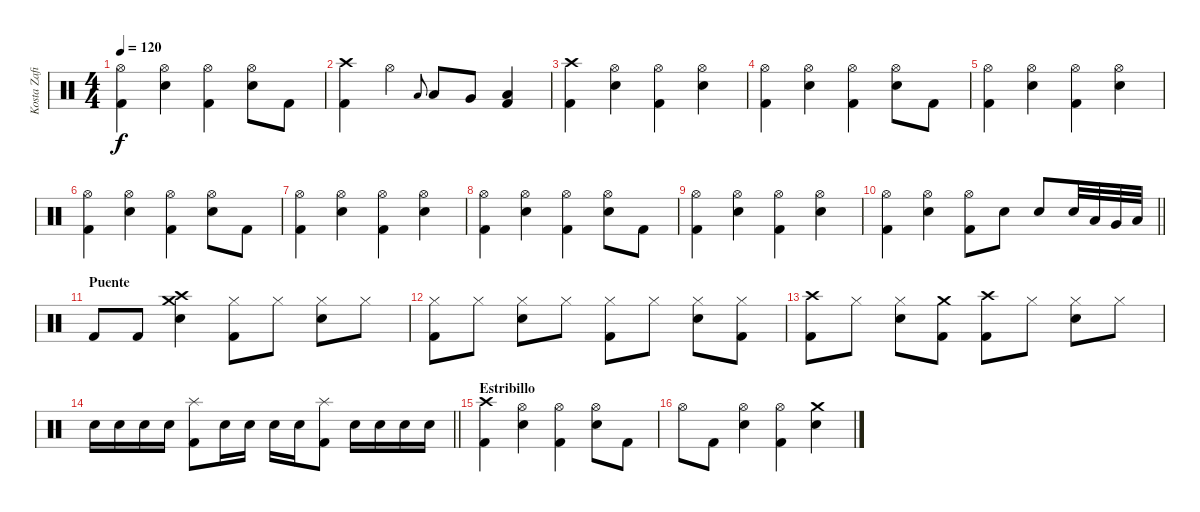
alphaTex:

\track ("Kosta Zafiriou" "Kosta Zafi") {instrument percussion}
\staff {score}
\articulation defaults
\ts (4 4)
\tempo 120
\clef neutral
\ks c
("Hi-Hat (open)" "Kick (hit) 2").4{dy f} ("Hi-Hat (open)" "Electric Snare (hit)").4 ("Hi-Hat (open)" "Kick (hit) 2").4 ("Hi-Hat (open)" "Electric Snare (hit)").8 "Kick (hit) 2".8 |
("Crash high (hit)" "Kick (hit) 2").4 "Hi-Hat (open)".4 "Low Tom (hit)".8{gr onbeat} "Low Tom (hit)".8 "Very Low Tom (hit)".8 ("Low Floor Tom (hit)" "Kick (hit) 2").4 |
("Crash high (hit)" "Kick (hit) 2").4 ("Hi-Hat (open)" "Electric Snare (hit)").4 ("Hi-Hat (open)" "Kick (hit) 2").4 ("Hi-Hat (open)" "Electric Snare (hit)").4 |
("Hi-Hat (open)" "Kick (hit) 2").4 ("Hi-Hat (open)" "Electric Snare (hit)").4 ("Hi-Hat (open)" "Kick (hit) 2").4 ("Hi-Hat (open)" "Electric Snare (hit)").8 "Kick (hit) 2".8 |
("Hi-Hat (open)" "Kick (hit) 2").4 ("Hi-Hat (open)" "Electric Snare (hit)").4 ("Hi-Hat (open)" "Kick (hit) 2").4 ("Hi-Hat (open)" "Electric Snare (hit)").4 |
("Hi-Hat (open)" "Kick (hit) 2").4 ("Hi-Hat (open)" "Electric Snare (hit)").4 ("Hi-Hat (open)" "Kick (hit) 2").4 ("Hi-Hat (open)" "Electric Snare (hit)").8 "Kick (hit) 2".8 |
("Hi-Hat (open)" "Kick (hit) 2").4 ("Hi-Hat (open)" "Electric Snare (hit)").4 ("Hi-Hat (open)" "Kick (hit) 2").4 ("Hi-Hat (open)" "Electric Snare (hit)").4 |
("Hi-Hat (open)" "Kick (hit) 2").4 ("Hi-Hat (open)" "Electric Snare (hit)").4 ("Hi-Hat (open)" "Kick (hit) 2").4 ("Hi-Hat (open)" "Electric Snare (hit)").8 "Kick (hit) 2".8 |
("Hi-Hat (open)" "Kick (hit) 2").4 ("Hi-Hat (open)" "Electric Snare (hit)").4 ("Hi-Hat (open)" "Kick (hit) 2").4 ("Hi-Hat (open)" "Electric Snare (hit)").4 |
\barLineRight lightlight
("Hi-Hat (open)" "Kick (hit) 2").4 ("Hi-Hat (open)" "Electric Snare (hit)").4 ("Hi-Hat (open)" "Kick (hit) 2").8 "Electric Snare (hit)".8 "Electric Snare (hit)".8 "Electric Snare (hit)".32 "Low Tom (hit)".32 "Very Low Tom (hit)".32 "Low Floor Tom (hit)".32 |
\section ("" "Puente")
"Kick (hit) 2".8 "Kick (hit) 2".8 ("Crash medium (hit)" "Crash high (hit)" "Electric Snare (hit)").4 ("Hi-Hat (closed)" "Kick (hit) 2").8 "Hi-Hat (closed)".8 ("Hi-Hat (closed)" "Electric Snare (hit)").8 "Hi-Hat (closed)".8 |
("Hi-Hat (closed)" "Kick (hit) 2").8 "Hi-Hat (closed)".8 ("Hi-Hat (closed)" "Electric Snare (hit)").8 "Hi-Hat (closed)".8 ("Hi-Hat (closed)" "Kick (hit) 2").8 "Hi-Hat (closed)".8 ("Hi-Hat (closed)" "Electric Snare (hit)").8 ("Hi-Hat (closed)" "Kick (hit) 2").8 |
("Crash high (hit)" "Kick (hit) 2").8 "Hi-Hat (closed)".8 ("Hi-Hat (closed)" "Electric Snare (hit)").8 ("Crash medium (hit)" "Kick (hit) 2").8 ("Crash high (hit)" "Kick (hit) 2").8 "Hi-Hat (closed)".8 ("Hi-Hat (closed)" "Electric Snare (hit)").8 "Hi-Hat (closed)".8 |
\barLineRight lightlight "Electric Snare (hit)".16 "Electric Snare (hit)".16 "Electric Snare (hit)".16 "Electric Snare (hit)".16
("Splash (hit)" "Kick (hit) 2").8 "Electric Snare (hit)".16 "Electric Snare (hit)".16 "Electric Snare (hit)".16 "Electric Snare (hit)".16 ("Splash (hit)" "Kick (hit) 2").8 "Electric Snare (hit)".16 "Electric Snare (hit)".16 "Electric Snare (hit)".16 "Electric Snare (hit)".16 |
\section ("" "Estribillo")
("Crash high (hit)" "Kick (hit) 2").4 ("Hi-Hat (open)" "Electric Snare (hit)").4 ("Hi-Hat (open)" "Kick (hit) 2").4 ("Hi-Hat (open)" "Electric Snare (hit)").8 "Kick (hit) 2".8 |
"Hi-Hat (open)".8 "Kick (hit) 2".8 ("Hi-Hat (open)" "Electric Snare (hit)").4 ("Hi-Hat (open)" "Kick (hit) 2").4 ("Crash medium (hit)" "Electric Snare (hit)").4
